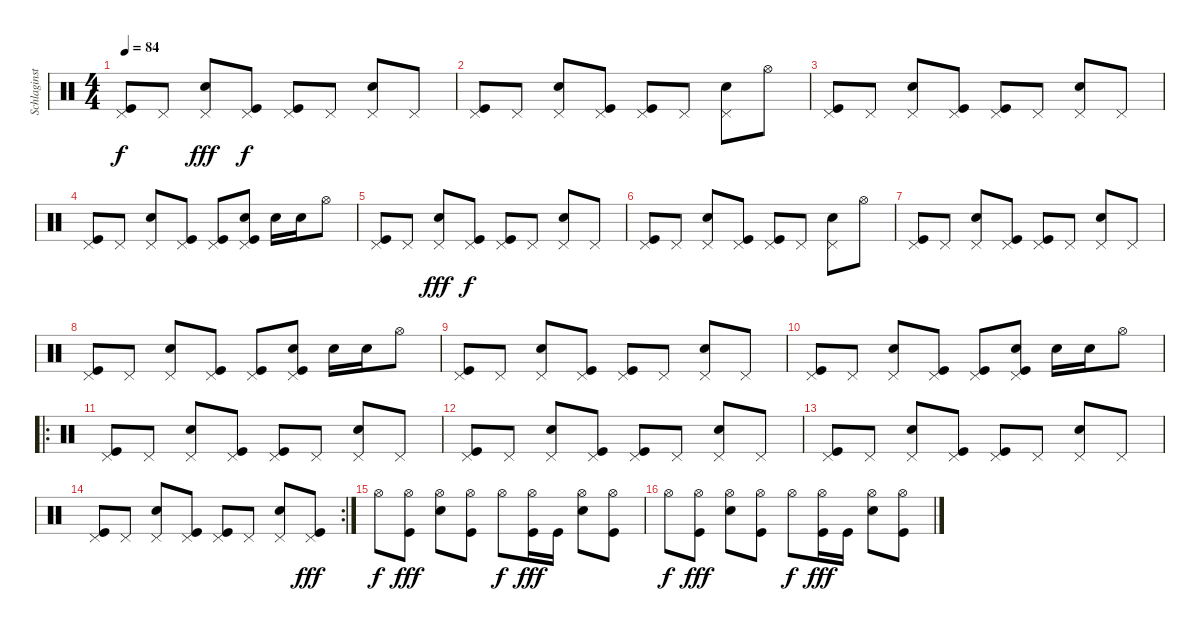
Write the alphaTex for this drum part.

\track ("Schlaginstrumente - Auswahl" "Schlaginst") {instrument percussion}
\staff {score}
\articulation defaults
\ts (4 4)
\tempo 84
\clef neutral
\ks c
("Pedal Hi-Hat (hit)" "Kick (hit)").8{dy f} "Pedal Hi-Hat (hit)".8 ("Pedal Hi-Hat (hit)" "Electric Snare (hit)").8{dy fff} ("Pedal Hi-Hat (hit)" "Kick (hit)").8{dy f} ("Pedal Hi-Hat (hit)" "Kick (hit)").8 "Pedal Hi-Hat (hit)".8 ("Pedal Hi-Hat (hit)" "Electric Snare (hit)").8 "Pedal Hi-Hat (hit)".8 |
("Pedal Hi-Hat (hit)" "Kick (hit)").8 "Pedal Hi-Hat (hit)".8 ("Pedal Hi-Hat (hit)" "Electric Snare (hit)").8 ("Pedal Hi-Hat (hit)" "Kick (hit)").8 ("Pedal Hi-Hat (hit)" "Kick (hit)").8 "Pedal Hi-Hat (hit)".8 ("Pedal Hi-Hat (hit)" "Electric Snare (hit)").8 "Hi-Hat (open)".8 |
("Pedal Hi-Hat (hit)" "Kick (hit)").8 "Pedal Hi-Hat (hit)".8 ("Pedal Hi-Hat (hit)" "Electric Snare (hit)").8 ("Pedal Hi-Hat (hit)" "Kick (hit)").8 ("Pedal Hi-Hat (hit)" "Kick (hit)").8 "Pedal Hi-Hat (hit)".8 ("Pedal Hi-Hat (hit)" "Electric Snare (hit)").8 "Pedal Hi-Hat (hit)".8 |
("Pedal Hi-Hat (hit)" "Kick (hit)").8 "Pedal Hi-Hat (hit)".8 ("Pedal Hi-Hat (hit)" "Electric Snare (hit)").8 ("Pedal Hi-Hat (hit)" "Kick (hit)").8 ("Pedal Hi-Hat (hit)" "Kick (hit)").8 ("Electric Snare (hit)" "Kick (hit)" "Pedal Hi-Hat (hit)").8 "Electric Snare (hit)".16 "Electric Snare (hit)".16 "Hi-Hat (open)".8 |
("Pedal Hi-Hat (hit)" "Kick (hit)").8 "Pedal Hi-Hat (hit)".8 ("Pedal Hi-Hat (hit)" "Electric Snare (hit)").8{dy fff} ("Pedal Hi-Hat (hit)" "Kick (hit)").8{dy f} ("Pedal Hi-Hat (hit)" "Kick (hit)").8 "Pedal Hi-Hat (hit)".8 ("Pedal Hi-Hat (hit)" "Electric Snare (hit)").8 "Pedal Hi-Hat (hit)".8 |
("Pedal Hi-Hat (hit)" "Kick (hit)").8 "Pedal Hi-Hat (hit)".8 ("Pedal Hi-Hat (hit)" "Electric Snare (hit)").8 ("Pedal Hi-Hat (hit)" "Kick (hit)").8 ("Pedal Hi-Hat (hit)" "Kick (hit)").8 "Pedal Hi-Hat (hit)".8 ("Pedal Hi-Hat (hit)" "Electric Snare (hit)").8 "Hi-Hat (open)".8 |
("Pedal Hi-Hat (hit)" "Kick (hit)").8 "Pedal Hi-Hat (hit)".8 ("Pedal Hi-Hat (hit)" "Electric Snare (hit)").8 ("Pedal Hi-Hat (hit)" "Kick (hit)").8 ("Pedal Hi-Hat (hit)" "Kick (hit)").8 "Pedal Hi-Hat (hit)".8 ("Pedal Hi-Hat (hit)" "Electric Snare (hit)").8 "Pedal Hi-Hat (hit)".8 |
("Pedal Hi-Hat (hit)" "Kick (hit)").8 "Pedal Hi-Hat (hit)".8 ("Pedal Hi-Hat (hit)" "Electric Snare (hit)").8 ("Pedal Hi-Hat (hit)" "Kick (hit)").8 ("Pedal Hi-Hat (hit)" "Kick (hit)").8 ("Electric Snare (hit)" "Kick (hit)" "Pedal Hi-Hat (hit)").8 "Electric Snare (hit)".16 "Electric Snare (hit)".16 "Hi-Hat (open)".8 |
("Pedal Hi-Hat (hit)" "Kick (hit)").8 "Pedal Hi-Hat (hit)".8 ("Pedal Hi-Hat (hit)" "Electric Snare (hit)").8 ("Pedal Hi-Hat (hit)" "Kick (hit)").8 ("Pedal Hi-Hat (hit)" "Kick (hit)").8 "Pedal Hi-Hat (hit)".8 ("Pedal Hi-Hat (hit)" "Electric Snare (hit)").8 "Pedal Hi-Hat (hit)".8 |
("Pedal Hi-Hat (hit)" "Kick (hit)").8 "Pedal Hi-Hat (hit)".8 ("Pedal Hi-Hat (hit)" "Electric Snare (hit)").8 ("Pedal Hi-Hat (hit)" "Kick (hit)").8 ("Pedal Hi-Hat (hit)" "Kick (hit)").8 ("Electric Snare (hit)" "Kick (hit)" "Pedal Hi-Hat (hit)").8 "Electric Snare (hit)".16 "Electric Snare (hit)".16 "Hi-Hat (open)".8 |
\ro
("Pedal Hi-Hat (hit)" "Kick (hit)").8 "Pedal Hi-Hat (hit)".8 ("Pedal Hi-Hat (hit)" "Electric Snare (hit)").8 ("Pedal Hi-Hat (hit)" "Kick (hit)").8 ("Pedal Hi-Hat (hit)" "Kick (hit)").8 "Pedal Hi-Hat (hit)".8 ("Pedal Hi-Hat (hit)" "Electric Snare (hit)").8 "Pedal Hi-Hat (hit)".8 |
("Pedal Hi-Hat (hit)" "Kick (hit)").8 "Pedal Hi-Hat (hit)".8 ("Pedal Hi-Hat (hit)" "Electric Snare (hit)").8 ("Pedal Hi-Hat (hit)" "Kick (hit)").8 ("Pedal Hi-Hat (hit)" "Kick (hit)").8 "Pedal Hi-Hat (hit)".8 ("Pedal Hi-Hat (hit)" "Electric Snare (hit)").8 "Pedal Hi-Hat (hit)".8 |
("Pedal Hi-Hat (hit)" "Kick (hit)").8 "Pedal Hi-Hat (hit)".8 ("Pedal Hi-Hat (hit)" "Electric Snare (hit)").8 ("Pedal Hi-Hat (hit)" "Kick (hit)").8 ("Pedal Hi-Hat (hit)" "Kick (hit)").8 "Pedal Hi-Hat (hit)".8 ("Pedal Hi-Hat (hit)" "Electric Snare (hit)").8 "Pedal Hi-Hat (hit)".8 |
\rc 2
("Pedal Hi-Hat (hit)" "Kick (hit)").8 "Pedal Hi-Hat (hit)".8 ("Pedal Hi-Hat (hit)" "Electric Snare (hit)").8 ("Pedal Hi-Hat (hit)" "Kick (hit)").8 ("Pedal Hi-Hat (hit)" "Kick (hit)").8 "Pedal Hi-Hat (hit)".8 ("Pedal Hi-Hat (hit)" "Electric Snare (hit)").8 ("Pedal Hi-Hat (hit)" "Kick (hit)").8{dy fff} |
"Hi-Hat (open)".8{dy f} ("Hi-Hat (open)" "Kick (hit)").8{dy fff} ("Hi-Hat (open)" "Electric Snare (hit)").8 ("Hi-Hat (open)" "Kick (hit)").8 "Hi-Hat (open)".8{dy f} ("Hi-Hat (open)" "Kick (hit)").16{dy fff} "Kick (hit)".16 ("Hi-Hat (open)" "Electric Snare (hit)").8 ("Hi-Hat (open)" "Kick (hit)").8 |
"Hi-Hat (open)".8{dy f} ("Hi-Hat (open)" "Kick (hit)").8{dy fff} ("Hi-Hat (open)" "Electric Snare (hit)").8 ("Hi-Hat (open)" "Kick (hit)").8 "Hi-Hat (open)".8{dy f} ("Hi-Hat (open)" "Kick (hit)").16{dy fff} "Kick (hit)".16 ("Hi-Hat (open)" "Electric Snare (hit)").8 ("Hi-Hat (open)" "Kick (hit)").8
